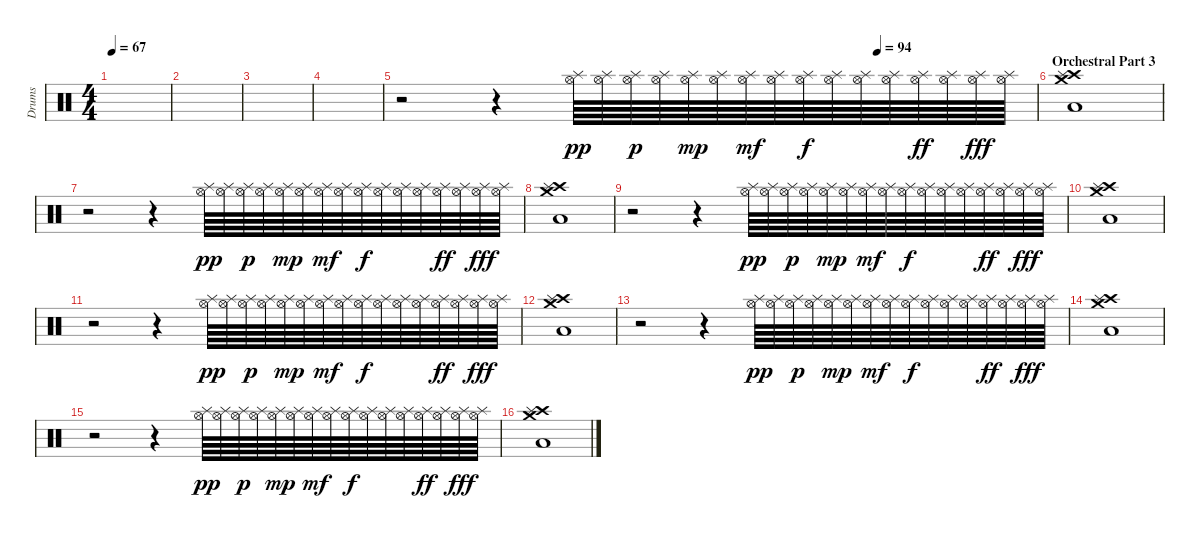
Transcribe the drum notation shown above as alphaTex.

\track ("Drums" "Drums") {instrument percussion}
\staff {score}
\articulation defaults
\ts (4 4)
\tempo 67
\clef neutral
\ks c
|
|
|
|
\tempo (94 0.75)
r.2 r.4 ("Splash (hit)" "Hi-Hat (open)").64{dy pp} ("Splash (hit)" "Hi-Hat (open)").64 ("Splash (hit)" "Hi-Hat (open)").64{dy p} ("Splash (hit)" "Hi-Hat (open)").64 ("Splash (hit)" "Hi-Hat (open)").64{dy mp} ("Splash (hit)" "Hi-Hat (open)").64 ("Splash (hit)" "Hi-Hat (open)").64{dy mf} ("Splash (hit)" "Hi-Hat (open)").64 ("Splash (hit)" "Hi-Hat (open)").64{dy f} ("Splash (hit)" "Hi-Hat (open)").64 ("Splash (hit)" "Hi-Hat (open)").64 ("Splash (hit)" "Hi-Hat (open)").64 ("Splash (hit)" "Hi-Hat (open)").64{dy ff} ("Splash (hit)" "Hi-Hat (open)").64 ("Splash (hit)" "Hi-Hat (open)").64{dy fff} ("Splash (hit)" "Hi-Hat (open)").64 |
\section ("" "Orchestral Part 3")
("Crash high (hit)" "Low Tom (hit)" "Splash (hit)" "Crash medium (hit)").1 |
r.2 r.4 ("Splash (hit)" "Hi-Hat (open)").64{dy pp} ("Splash (hit)" "Hi-Hat (open)").64 ("Splash (hit)" "Hi-Hat (open)").64{dy p} ("Splash (hit)" "Hi-Hat (open)").64 ("Splash (hit)" "Hi-Hat (open)").64{dy mp} ("Splash (hit)" "Hi-Hat (open)").64 ("Splash (hit)" "Hi-Hat (open)").64{dy mf} ("Splash (hit)" "Hi-Hat (open)").64 ("Splash (hit)" "Hi-Hat (open)").64{dy f} ("Splash (hit)" "Hi-Hat (open)").64 ("Splash (hit)" "Hi-Hat (open)").64 ("Splash (hit)" "Hi-Hat (open)").64 ("Splash (hit)" "Hi-Hat (open)").64{dy ff} ("Splash (hit)" "Hi-Hat (open)").64 ("Splash (hit)" "Hi-Hat (open)").64{dy fff} ("Splash (hit)" "Hi-Hat (open)").64 |
("Crash high (hit)" "Low Tom (hit)" "Splash (hit)" "Crash medium (hit)").1 |
r.2 r.4 ("Splash (hit)" "Hi-Hat (open)").64{dy pp} ("Splash (hit)" "Hi-Hat (open)").64 ("Splash (hit)" "Hi-Hat (open)").64{dy p} ("Splash (hit)" "Hi-Hat (open)").64 ("Splash (hit)" "Hi-Hat (open)").64{dy mp} ("Splash (hit)" "Hi-Hat (open)").64 ("Splash (hit)" "Hi-Hat (open)").64{dy mf} ("Splash (hit)" "Hi-Hat (open)").64 ("Splash (hit)" "Hi-Hat (open)").64{dy f} ("Splash (hit)" "Hi-Hat (open)").64 ("Splash (hit)" "Hi-Hat (open)").64 ("Splash (hit)" "Hi-Hat (open)").64 ("Splash (hit)" "Hi-Hat (open)").64{dy ff} ("Splash (hit)" "Hi-Hat (open)").64 ("Splash (hit)" "Hi-Hat (open)").64{dy fff} ("Splash (hit)" "Hi-Hat (open)").64 |
("Crash high (hit)" "Low Tom (hit)" "Splash (hit)" "Crash medium (hit)").1 |
r.2 r.4 ("Splash (hit)" "Hi-Hat (open)").64{dy pp} ("Splash (hit)" "Hi-Hat (open)").64 ("Splash (hit)" "Hi-Hat (open)").64{dy p} ("Splash (hit)" "Hi-Hat (open)").64 ("Splash (hit)" "Hi-Hat (open)").64{dy mp} ("Splash (hit)" "Hi-Hat (open)").64 ("Splash (hit)" "Hi-Hat (open)").64{dy mf} ("Splash (hit)" "Hi-Hat (open)").64 ("Splash (hit)" "Hi-Hat (open)").64{dy f} ("Splash (hit)" "Hi-Hat (open)").64 ("Splash (hit)" "Hi-Hat (open)").64 ("Splash (hit)" "Hi-Hat (open)").64 ("Splash (hit)" "Hi-Hat (open)").64{dy ff} ("Splash (hit)" "Hi-Hat (open)").64 ("Splash (hit)" "Hi-Hat (open)").64{dy fff} ("Splash (hit)" "Hi-Hat (open)").64 |
("Crash high (hit)" "Low Tom (hit)" "Splash (hit)" "Crash medium (hit)").1 |
r.2 r.4 ("Splash (hit)" "Hi-Hat (open)").64{dy pp} ("Splash (hit)" "Hi-Hat (open)").64 ("Splash (hit)" "Hi-Hat (open)").64{dy p} ("Splash (hit)" "Hi-Hat (open)").64 ("Splash (hit)" "Hi-Hat (open)").64{dy mp} ("Splash (hit)" "Hi-Hat (open)").64 ("Splash (hit)" "Hi-Hat (open)").64{dy mf} ("Splash (hit)" "Hi-Hat (open)").64 ("Splash (hit)" "Hi-Hat (open)").64{dy f} ("Splash (hit)" "Hi-Hat (open)").64 ("Splash (hit)" "Hi-Hat (open)").64 ("Splash (hit)" "Hi-Hat (open)").64 ("Splash (hit)" "Hi-Hat (open)").64{dy ff} ("Splash (hit)" "Hi-Hat (open)").64 ("Splash (hit)" "Hi-Hat (open)").64{dy fff} ("Splash (hit)" "Hi-Hat (open)").64 |
("Crash high (hit)" "Low Tom (hit)" "Splash (hit)" "Crash medium (hit)").1 |
r.2 r.4 ("Splash (hit)" "Hi-Hat (open)").64{dy pp} ("Splash (hit)" "Hi-Hat (open)").64 ("Splash (hit)" "Hi-Hat (open)").64{dy p} ("Splash (hit)" "Hi-Hat (open)").64 ("Splash (hit)" "Hi-Hat (open)").64{dy mp} ("Splash (hit)" "Hi-Hat (open)").64 ("Splash (hit)" "Hi-Hat (open)").64{dy mf} ("Splash (hit)" "Hi-Hat (open)").64 ("Splash (hit)" "Hi-Hat (open)").64{dy f} ("Splash (hit)" "Hi-Hat (open)").64 ("Splash (hit)" "Hi-Hat (open)").64 ("Splash (hit)" "Hi-Hat (open)").64 ("Splash (hit)" "Hi-Hat (open)").64{dy ff} ("Splash (hit)" "Hi-Hat (open)").64 ("Splash (hit)" "Hi-Hat (open)").64{dy fff} ("Splash (hit)" "Hi-Hat (open)").64 |
("Crash high (hit)" "Low Tom (hit)" "Splash (hit)" "Crash medium (hit)").1
